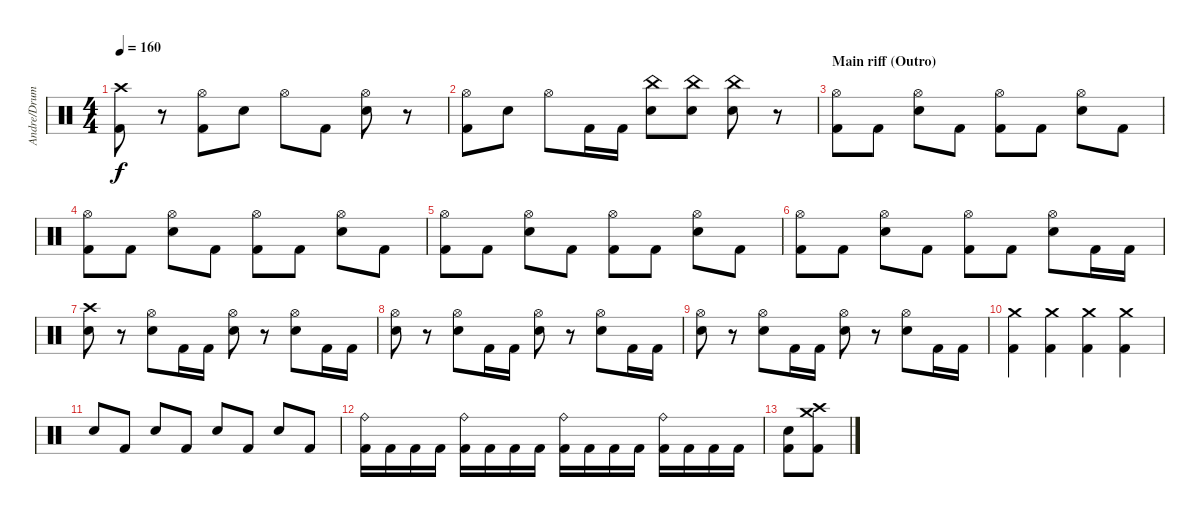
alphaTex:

\track ("Andre/Drums" "Andre/Drum") {instrument percussion}
\staff {score}
\articulation defaults
\ts (4 4)
\tempo 160
\clef neutral
\ks c
("Crash high (hit)" "Kick (hit) 2").8{dy f} r.8 ("Hi-Hat (open)" "Kick (hit) 2").8 "Snare (hit) 2".8 "Hi-Hat (open)".8 "Kick (hit) 2".8 ("Hi-Hat (open)" "Snare (hit) 2").8 r.8 |
("Hi-Hat (open)" "Kick (hit) 2").8 "Snare (hit) 2".8 "Hi-Hat (open)".8 "Kick (hit) 2".16 "Kick (hit) 2".16 ("China (hit)" "Snare (hit) 2").8 ("China (hit)" "Snare (hit) 2").8 ("China (hit)" "Snare (hit) 2").8 r.8 |
\section ("" "Main riff (Outro)")
("Hi-Hat (open)" "Kick (hit) 2").8 "Kick (hit) 2".8 ("Hi-Hat (open)" "Snare (hit) 2").8 "Kick (hit) 2".8 ("Hi-Hat (open)" "Kick (hit) 2").8 "Kick (hit) 2".8 ("Hi-Hat (open)" "Snare (hit) 2").8 "Kick (hit) 2".8 |
("Hi-Hat (open)" "Kick (hit) 2").8 "Kick (hit) 2".8 ("Hi-Hat (open)" "Snare (hit) 2").8 "Kick (hit) 2".8 ("Hi-Hat (open)" "Kick (hit) 2").8 "Kick (hit) 2".8 ("Hi-Hat (open)" "Snare (hit) 2").8 "Kick (hit) 2".8 |
("Hi-Hat (open)" "Kick (hit) 2").8 "Kick (hit) 2".8 ("Hi-Hat (open)" "Snare (hit) 2").8 "Kick (hit) 2".8 ("Hi-Hat (open)" "Kick (hit) 2").8 "Kick (hit) 2".8 ("Hi-Hat (open)" "Snare (hit) 2").8 "Kick (hit) 2".8 |
("Hi-Hat (open)" "Kick (hit) 2").8 "Kick (hit) 2".8 ("Hi-Hat (open)" "Snare (hit) 2").8 "Kick (hit) 2".8 ("Hi-Hat (open)" "Kick (hit) 2").8 "Kick (hit) 2".8 ("Hi-Hat (open)" "Snare (hit) 2").8 "Kick (hit) 2".16 "Kick (hit) 2".16 |
("Crash high (hit)" "Snare (hit) 2").8 r.8 ("Hi-Hat (open)" "Snare (hit) 2").8 "Kick (hit) 2".16 "Kick (hit) 2".16 ("Hi-Hat (open)" "Snare (hit) 2").8 r.8 ("Hi-Hat (open)" "Snare (hit) 2").8 "Kick (hit) 2".16 "Kick (hit) 2".16 |
("Hi-Hat (open)" "Snare (hit) 2").8 r.8 ("Hi-Hat (open)" "Snare (hit) 2").8 "Kick (hit) 2".16 "Kick (hit) 2".16 ("Hi-Hat (open)" "Snare (hit) 2").8 r.8 ("Hi-Hat (open)" "Snare (hit) 2").8 "Kick (hit) 2".16 "Kick (hit) 2".16 |
("Hi-Hat (open)" "Snare (hit) 2").8 r.8 ("Hi-Hat (open)" "Snare (hit) 2").8 "Kick (hit) 2".16 "Kick (hit) 2".16 ("Hi-Hat (open)" "Snare (hit) 2").8 r.8 ("Hi-Hat (open)" "Snare (hit) 2").8 "Kick (hit) 2".16 "Kick (hit) 2".16 |
("Crash medium (hit)" "Kick (hit) 2").4 ("Crash medium (hit)" "Kick (hit) 2").4 ("Crash medium (hit)" "Kick (hit) 2").4 ("Crash medium (hit)" "Kick (hit) 2").4 |
"Snare (hit) 2".8 "Kick (hit) 2".8 "Snare (hit) 2".8 "Kick (hit) 2".8 "Snare (hit) 2".8 "Kick (hit) 2".8 "Snare (hit) 2".8 "Kick (hit) 2".8 |
("Ride (bell)" "Kick (hit) 2").16 "Kick (hit) 2".16 "Kick (hit) 2".16 "Kick (hit) 2".16 ("Ride (bell)" "Kick (hit) 2").16 "Kick (hit) 2".16 "Kick (hit) 2".16 "Kick (hit) 2".16 ("Ride (bell)" "Kick (hit) 2").16 "Kick (hit) 2".16 "Kick (hit) 2".16 "Kick (hit) 2".16 ("Ride (bell)" "Kick (hit) 2").16 "Kick (hit) 2".16 "Kick (hit) 2".16 "Kick (hit) 2".16 |
("Snare (hit) 2" "Kick (hit) 2").8 ("Crash high (hit)" "Crash medium (hit)" "Kick (hit) 2").8
